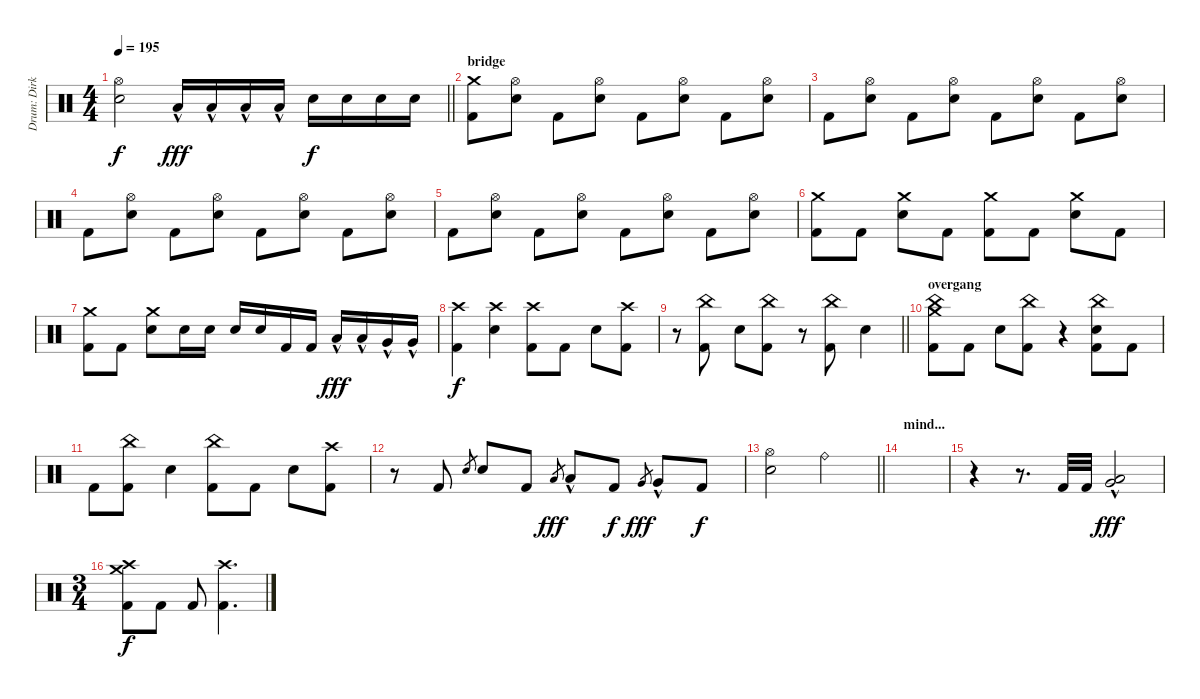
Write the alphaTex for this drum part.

\track ("Drum: Dirk" "Drum: Dirk") {instrument percussion}
\staff {score}
\articulation defaults
\ts (4 4)
\tempo 195
\clef neutral
\barLineRight lightlight
\ks c
("Hi-Hat (open)" "Electric Snare (hit)").2{dy f} "Low Tom (hit)"{hac}.16{dy fff} "Low Tom (hit)"{hac}.16 "Low Tom (hit)"{hac}.16 "Low Tom (hit)"{hac}.16 "Electric Snare (hit)".16{dy f} "Electric Snare (hit)".16 "Electric Snare (hit)".16 "Electric Snare (hit)".16 |
\section ("" "bridge")
("Crash medium (hit)" "Kick (hit) 2").8 ("Hi-Hat (open)" "Electric Snare (hit)").8 "Kick (hit) 2".8 ("Hi-Hat (open)" "Electric Snare (hit)").8 "Kick (hit) 2".8 ("Hi-Hat (open)" "Electric Snare (hit)").8 "Kick (hit) 2".8 ("Hi-Hat (open)" "Electric Snare (hit)").8 |
"Kick (hit) 2".8 ("Hi-Hat (open)" "Electric Snare (hit)").8 "Kick (hit) 2".8 ("Hi-Hat (open)" "Electric Snare (hit)").8 "Kick (hit) 2".8 ("Hi-Hat (open)" "Electric Snare (hit)").8 "Kick (hit) 2".8 ("Hi-Hat (open)" "Electric Snare (hit)").8 |
"Kick (hit) 2".8 ("Hi-Hat (open)" "Electric Snare (hit)").8 "Kick (hit) 2".8 ("Hi-Hat (open)" "Electric Snare (hit)").8 "Kick (hit) 2".8 ("Hi-Hat (open)" "Electric Snare (hit)").8 "Kick (hit) 2".8 ("Hi-Hat (open)" "Electric Snare (hit)").8 |
"Kick (hit) 2".8 ("Hi-Hat (open)" "Electric Snare (hit)").8 "Kick (hit) 2".8 ("Hi-Hat (open)" "Electric Snare (hit)").8 "Kick (hit) 2".8 ("Hi-Hat (open)" "Electric Snare (hit)").8 "Kick (hit) 2".8 ("Hi-Hat (open)" "Electric Snare (hit)").8 |
("Crash medium (hit)" "Kick (hit) 2").8 "Kick (hit) 2".8 ("Crash medium (hit)" "Electric Snare (hit)").8 "Kick (hit) 2".8 ("Crash medium (hit)" "Kick (hit) 2").8 "Kick (hit) 2".8 ("Crash medium (hit)" "Electric Snare (hit)").8 "Kick (hit) 2".8 |
("Crash medium (hit)" "Kick (hit) 2").8 "Kick (hit) 2".8 ("Crash medium (hit)" "Electric Snare (hit)").8 "Electric Snare (hit)".16 "Electric Snare (hit)".16 "Electric Snare (hit)".16 "Electric Snare (hit)".16 "Kick (hit) 2".16 "Kick (hit) 2".16 "Low Tom (hit)"{hac}.16{dy fff} "Low Tom (hit)"{hac}.16 "Very Low Tom (hit)"{hac}.16 "Very Low Tom (hit)"{hac}.16 |
("Crash high (hit)" "Kick (hit) 2").4{dy f} ("Crash high (hit)" "Electric Snare (hit)").4 ("Crash high (hit)" "Kick (hit) 2").8 "Kick (hit) 2".8 "Electric Snare (hit)".8 ("Crash high (hit)" "Kick (hit) 2").8 |
\barLineRight lightlight
r.8 ("China (hit)" "Kick (hit) 2").8 "Electric Snare (hit)".8 ("China (hit)" "Kick (hit) 2").8 r.8 ("China (hit)" "Kick (hit) 2").8 "Electric Snare (hit)".4 |
\section ("" "overgang")
("China (hit)" "Crash medium (hit)" "Kick (hit) 2").8 "Kick (hit) 2".8 "Electric Snare (hit)".8 ("China (hit)" "Kick (hit) 2").8 r.4 ("China (hit)" "Electric Snare (hit)" "Kick (hit) 2").8 "Kick (hit) 2".8 |
"Kick (hit) 2".8 ("China (hit)" "Kick (hit) 2").8 "Electric Snare (hit)".4 ("China (hit)" "Kick (hit) 2").8 "Kick (hit) 2".8 "Electric Snare (hit)".8 ("Crash high (hit)" "Kick (hit) 2").8 |
r.8 "Kick (hit) 2".8 "Electric Snare (hit)".8{gr} "Electric Snare (hit)".8 "Kick (hit) 2".8 "Low Tom (hit)".8{gr dy fff} "Low Tom (hit)"{hac}.8 "Kick (hit) 2".8{dy f} "Very Low Tom (hit)".8{gr dy fff} "Very Low Tom (hit)"{hac}.8 "Kick (hit) 2".8{dy f} |
\barLineRight lightlight
("Hi-Hat (open)" "Electric Snare (hit)").2 "Ride (bell)".2 |
\section ("" "mind...")
|
r.4 r.8{d} "Kick (hit) 2".32 "Kick (hit) 2".32 ("Very Low Tom (hit)"{hac} "Low Floor Tom (hit)"{hac}).2{dy fff} |
\ts (3 4)
("Crash high (hit)" "Crash medium (hit)" "Kick (hit) 2").8{dy f} "Kick (hit) 2".8 "Kick (hit) 2".8 ("Crash high (hit)" "Kick (hit) 2").4{d}
